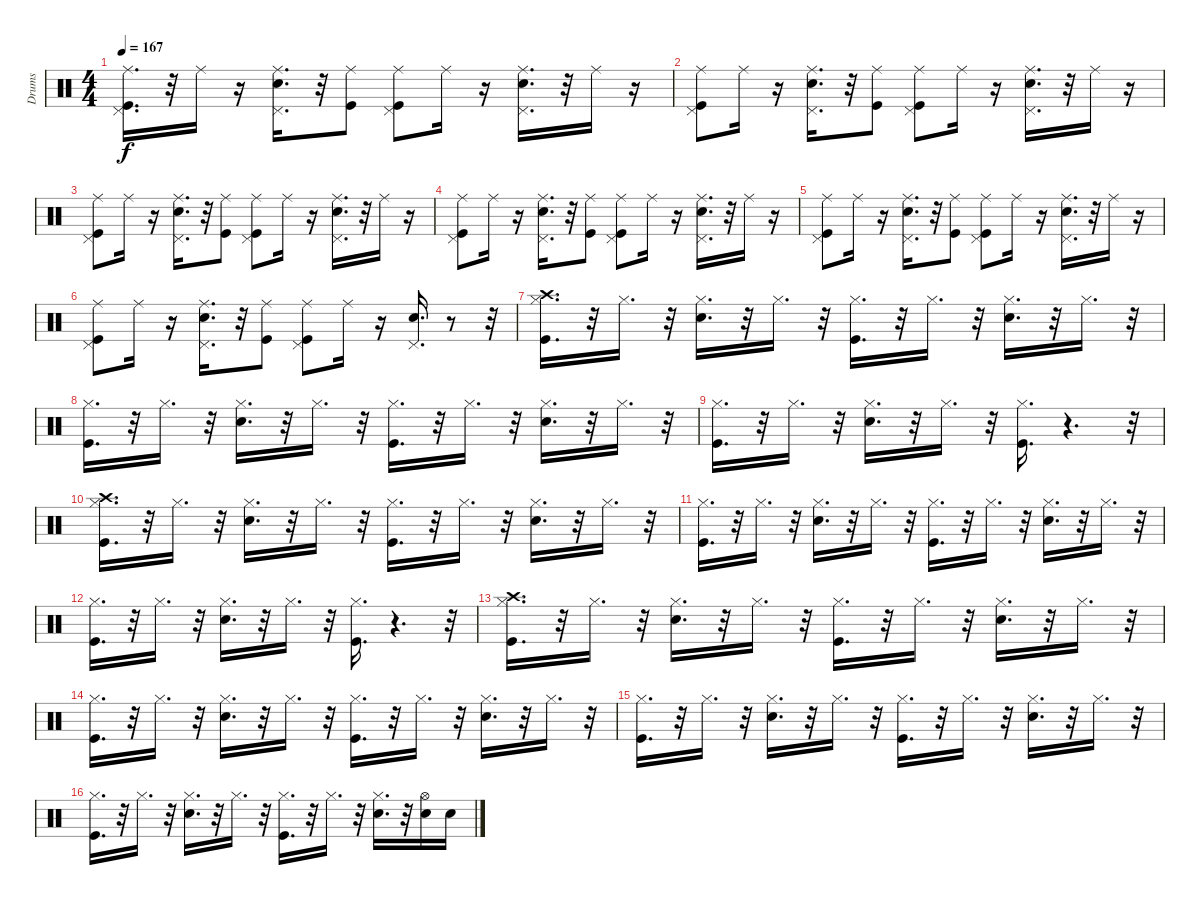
\track ("Drums" "Drums") {instrument percussion}
\staff {score}
\articulation defaults
\ts (4 4)
\tempo 167
\clef neutral
\ks c
("Ride (middle)" "Pedal Hi-Hat (hit)" "Kick (hit)").16{d dy f} r.32 "Ride (middle)".16 r.16 ("Pedal Hi-Hat (hit)" "Ride (middle)" "Electric Snare (hit)").16{d} r.32 ("Ride (middle)" "Kick (hit)").8 ("Pedal Hi-Hat (hit)" "Kick (hit)" "Ride (middle)").8 "Ride (middle)".16 r.16 ("Electric Snare (hit)" "Ride (middle)" "Pedal Hi-Hat (hit)").16{d} r.32 "Ride (middle)".16 r.16 |
("Kick (hit)" "Ride (middle)" "Pedal Hi-Hat (hit)").8 "Ride (middle)".16 r.16 ("Pedal Hi-Hat (hit)" "Electric Snare (hit)" "Ride (middle)").16{d} r.32 ("Ride (middle)" "Kick (hit)").8 ("Kick (hit)" "Pedal Hi-Hat (hit)" "Ride (middle)").8 "Ride (middle)".16 r.16 ("Ride (middle)" "Pedal Hi-Hat (hit)" "Electric Snare (hit)").16{d} r.32 "Ride (middle)".16 r.16 |
("Kick (hit)" "Ride (middle)" "Pedal Hi-Hat (hit)").8 "Ride (middle)".16 r.16 ("Ride (middle)" "Pedal Hi-Hat (hit)" "Electric Snare (hit)").16{d} r.32 ("Kick (hit)" "Ride (middle)").8 ("Ride (middle)" "Kick (hit)" "Pedal Hi-Hat (hit)").8 "Ride (middle)".16 r.16 ("Ride (middle)" "Electric Snare (hit)" "Pedal Hi-Hat (hit)").16{d} r.32 "Ride (middle)".16 r.16 |
("Ride (middle)" "Pedal Hi-Hat (hit)" "Kick (hit)").8 "Ride (middle)".16 r.16 ("Pedal Hi-Hat (hit)" "Electric Snare (hit)" "Ride (middle)").16{d} r.32 ("Kick (hit)" "Ride (middle)").8 ("Kick (hit)" "Ride (middle)" "Pedal Hi-Hat (hit)").8 "Ride (middle)".16 r.16 ("Electric Snare (hit)" "Ride (middle)" "Pedal Hi-Hat (hit)").16{d} r.32 "Ride (middle)".16 r.16 |
("Pedal Hi-Hat (hit)" "Kick (hit)" "Ride (middle)").8 "Ride (middle)".16 r.16 ("Ride (middle)" "Pedal Hi-Hat (hit)" "Electric Snare (hit)").16{d} r.32 ("Kick (hit)" "Ride (middle)").8 ("Kick (hit)" "Ride (middle)" "Pedal Hi-Hat (hit)").8 "Ride (middle)".16 r.16 ("Ride (middle)" "Electric Snare (hit)" "Pedal Hi-Hat (hit)").16{d} r.32 "Ride (middle)".16 r.16 |
("Kick (hit)" "Ride (middle)" "Pedal Hi-Hat (hit)").8 "Ride (middle)".16 r.16 ("Pedal Hi-Hat (hit)" "Electric Snare (hit)" "Ride (middle)").16{d} r.32 ("Kick (hit)" "Ride (middle)").8 ("Ride (middle)" "Kick (hit)" "Pedal Hi-Hat (hit)").8 "Ride (middle)".16 r.16 ("Electric Snare (hit)" "Pedal Hi-Hat (hit)").16{d} r.8 r.32 |
("Crash high (hit)" "Hi-Hat (closed)" "Kick (hit)").16{d} r.32 "Hi-Hat (closed)".16{d} r.32 ("Hi-Hat (closed)" "Electric Snare (hit)").16{d} r.32 "Hi-Hat (closed)".16{d} r.32 ("Hi-Hat (closed)" "Kick (hit)").16{d} r.32 "Hi-Hat (closed)".16{d} r.32 ("Electric Snare (hit)" "Hi-Hat (closed)").16{d} r.32 "Hi-Hat (closed)".16{d} r.32 |
("Kick (hit)" "Hi-Hat (closed)").16{d} r.32 "Hi-Hat (closed)".16{d} r.32 ("Electric Snare (hit)" "Hi-Hat (closed)").16{d} r.32 "Hi-Hat (closed)".16{d} r.32 ("Kick (hit)" "Hi-Hat (closed)").16{d} r.32 "Hi-Hat (closed)".16{d} r.32 ("Electric Snare (hit)" "Hi-Hat (closed)").16{d} r.32 "Hi-Hat (closed)".16{d} r.32 |
("Hi-Hat (closed)" "Kick (hit)").16{d} r.32 "Hi-Hat (closed)".16{d} r.32 ("Electric Snare (hit)" "Hi-Hat (closed)").16{d} r.32 "Hi-Hat (closed)".16{d} r.32 ("Kick (hit)" "Hi-Hat (closed)").16{d} r.4{d} r.32 |
("Hi-Hat (closed)" "Kick (hit)" "Crash high (hit)").16{d} r.32 "Hi-Hat (closed)".16{d} r.32 ("Electric Snare (hit)" "Hi-Hat (closed)").16{d} r.32 "Hi-Hat (closed)".16{d} r.32 ("Kick (hit)" "Hi-Hat (closed)").16{d} r.32 "Hi-Hat (closed)".16{d} r.32 ("Electric Snare (hit)" "Hi-Hat (closed)").16{d} r.32 "Hi-Hat (closed)".16{d} r.32 |
("Kick (hit)" "Hi-Hat (closed)").16{d} r.32 "Hi-Hat (closed)".16{d} r.32 ("Electric Snare (hit)" "Hi-Hat (closed)").16{d} r.32 "Hi-Hat (closed)".16{d} r.32 ("Kick (hit)" "Hi-Hat (closed)").16{d} r.32 "Hi-Hat (closed)".16{d} r.32 ("Hi-Hat (closed)" "Electric Snare (hit)").16{d} r.32 "Hi-Hat (closed)".16{d} r.32 |
("Kick (hit)" "Hi-Hat (closed)").16{d} r.32 "Hi-Hat (closed)".16{d} r.32 ("Electric Snare (hit)" "Hi-Hat (closed)").16{d} r.32 "Hi-Hat (closed)".16{d} r.32 ("Hi-Hat (closed)" "Kick (hit)").16{d} r.4{d} r.32 |
("Hi-Hat (closed)" "Kick (hit)" "Crash high (hit)").16{d} r.32 "Hi-Hat (closed)".16{d} r.32 ("Hi-Hat (closed)" "Electric Snare (hit)").16{d} r.32 "Hi-Hat (closed)".16{d} r.32 ("Kick (hit)" "Hi-Hat (closed)").16{d} r.32 "Hi-Hat (closed)".16{d} r.32 ("Hi-Hat (closed)" "Electric Snare (hit)").16{d} r.32 "Hi-Hat (closed)".16{d} r.32 |
("Kick (hit)" "Hi-Hat (closed)").16{d} r.32 "Hi-Hat (closed)".16{d} r.32 ("Hi-Hat (closed)" "Electric Snare (hit)").16{d} r.32 "Hi-Hat (closed)".16{d} r.32 ("Hi-Hat (closed)" "Kick (hit)").16{d} r.32 "Hi-Hat (closed)".16{d} r.32 ("Electric Snare (hit)" "Hi-Hat (closed)").16{d} r.32 "Hi-Hat (closed)".16{d} r.32 |
("Hi-Hat (closed)" "Kick (hit)").16{d} r.32 "Hi-Hat (closed)".16{d} r.32 ("Electric Snare (hit)" "Hi-Hat (closed)").16{d} r.32 "Hi-Hat (closed)".16{d} r.32 ("Hi-Hat (closed)" "Kick (hit)").16{d} r.32 "Hi-Hat (closed)".16{d} r.32 ("Hi-Hat (closed)" "Electric Snare (hit)").16{d} r.32 "Hi-Hat (closed)".16{d} r.32 |
("Kick (hit)" "Hi-Hat (closed)").16{d} r.32 "Hi-Hat (closed)".16{d} r.32 ("Hi-Hat (closed)" "Electric Snare (hit)").16{d} r.32 "Hi-Hat (closed)".16{d} r.32 ("Kick (hit)" "Hi-Hat (closed)").16{d} r.32 "Hi-Hat (closed)".16{d} r.32 ("Electric Snare (hit)" "Hi-Hat (closed)").16{d} r.32 ("Hi-Hat (open)" "Electric Snare (hit)").16 "Electric Snare (hit)".16
